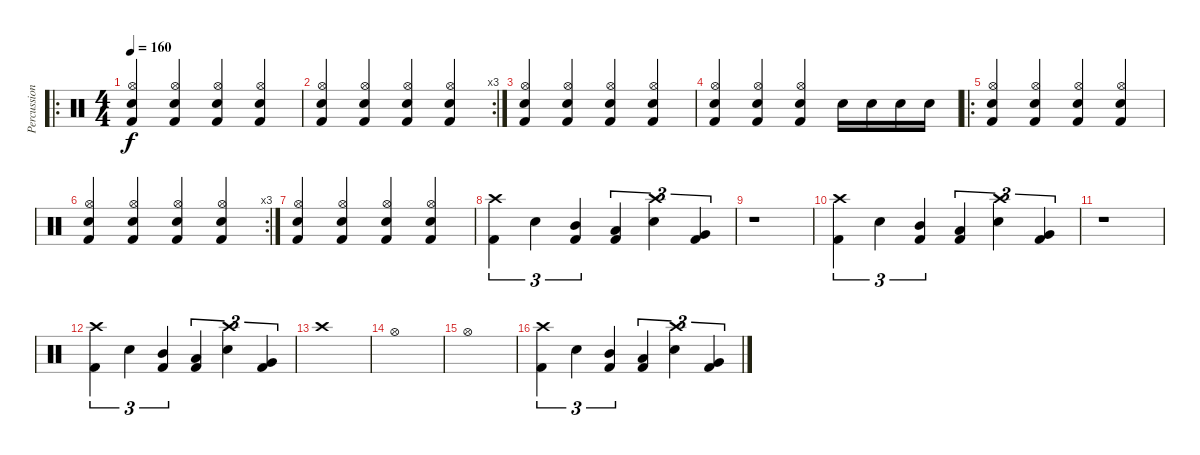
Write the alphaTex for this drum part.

\track ("Percussions" "Percussion") {instrument percussion}
\staff {score}
\articulation defaults
\ro
\ts (4 4)
\tempo 160
\clef neutral
\ks c
("Kick (hit) 2" "Hi-Hat (open)" "Electric Snare (hit)").4{dy f} ("Kick (hit) 2" "Hi-Hat (open)" "Electric Snare (hit)").4 ("Kick (hit) 2" "Hi-Hat (open)" "Electric Snare (hit)").4 ("Kick (hit) 2" "Hi-Hat (open)" "Electric Snare (hit)").4 |
\rc 3
("Kick (hit) 2" "Hi-Hat (open)" "Electric Snare (hit)").4 ("Kick (hit) 2" "Hi-Hat (open)" "Electric Snare (hit)").4 ("Kick (hit) 2" "Hi-Hat (open)" "Electric Snare (hit)").4 ("Kick (hit) 2" "Hi-Hat (open)" "Electric Snare (hit)").4 |
("Kick (hit) 2" "Hi-Hat (open)" "Electric Snare (hit)").4 ("Kick (hit) 2" "Hi-Hat (open)" "Electric Snare (hit)").4 ("Kick (hit) 2" "Hi-Hat (open)" "Electric Snare (hit)").4 ("Kick (hit) 2" "Hi-Hat (open)" "Electric Snare (hit)").4 |
("Kick (hit) 2" "Hi-Hat (open)" "Electric Snare (hit)").4 ("Kick (hit) 2" "Hi-Hat (open)" "Electric Snare (hit)").4 ("Kick (hit) 2" "Hi-Hat (open)" "Electric Snare (hit)").4 "Electric Snare (hit)".16 "Electric Snare (hit)".16 "Electric Snare (hit)".16 "Electric Snare (hit)".16 |
\ro
("Kick (hit) 2" "Hi-Hat (open)" "Electric Snare (hit)").4 ("Kick (hit) 2" "Hi-Hat (open)" "Electric Snare (hit)").4 ("Kick (hit) 2" "Hi-Hat (open)" "Electric Snare (hit)").4 ("Kick (hit) 2" "Hi-Hat (open)" "Electric Snare (hit)").4 |
\rc 3
("Kick (hit) 2" "Hi-Hat (open)" "Electric Snare (hit)").4 ("Kick (hit) 2" "Hi-Hat (open)" "Electric Snare (hit)").4 ("Kick (hit) 2" "Hi-Hat (open)" "Electric Snare (hit)").4 ("Kick (hit) 2" "Hi-Hat (open)" "Electric Snare (hit)").4 |
("Kick (hit) 2" "Hi-Hat (open)" "Electric Snare (hit)").4 ("Kick (hit) 2" "Hi-Hat (open)" "Electric Snare (hit)").4 ("Kick (hit) 2" "Hi-Hat (open)" "Electric Snare (hit)").4 ("Kick (hit) 2" "Hi-Hat (open)" "Electric Snare (hit)").4 |
("Kick (hit) 2" "Crash high (hit)").4{tu (3 2)} "Electric Snare (hit)".4{tu (3 2)} ("Kick (hit) 2" "Mid Tom (hit)").4{tu (3 2)} ("Kick (hit) 2" "Low Tom (hit)").4{tu (3 2)} ("Crash high (hit)" "Electric Snare (hit)").4{tu (3 2)} ("Kick (hit) 2" "Very Low Tom (hit)").4{tu (3 2)} |
r.1 |
("Kick (hit) 2" "Crash high (hit)").4{tu (3 2)} "Electric Snare (hit)".4{tu (3 2)} ("Kick (hit) 2" "Mid Tom (hit)").4{tu (3 2)} ("Kick (hit) 2" "Low Tom (hit)").4{tu (3 2)} ("Crash high (hit)" "Electric Snare (hit)").4{tu (3 2)} ("Kick (hit) 2" "Very Low Tom (hit)").4{tu (3 2)} |
r.1 |
("Kick (hit) 2" "Crash high (hit)").4{tu (3 2)} "Electric Snare (hit)".4{tu (3 2)} ("Kick (hit) 2" "Mid Tom (hit)").4{tu (3 2)} ("Kick (hit) 2" "Low Tom (hit)").4{tu (3 2)} ("Crash high (hit)" "Electric Snare (hit)").4{tu (3 2)} ("Kick (hit) 2" "Very Low Tom (hit)").4{tu (3 2)} |
"Crash high (hit)".1 |
"Hi-Hat (open)".1 |
"Hi-Hat (open)".1 |
("Kick (hit) 2" "Crash high (hit)").4{tu (3 2)} "Electric Snare (hit)".4{tu (3 2)} ("Kick (hit) 2" "Mid Tom (hit)").4{tu (3 2)} ("Kick (hit) 2" "Low Tom (hit)").4{tu (3 2)} ("Crash high (hit)" "Electric Snare (hit)").4{tu (3 2)} ("Kick (hit) 2" "Very Low Tom (hit)").4{tu (3 2)}
